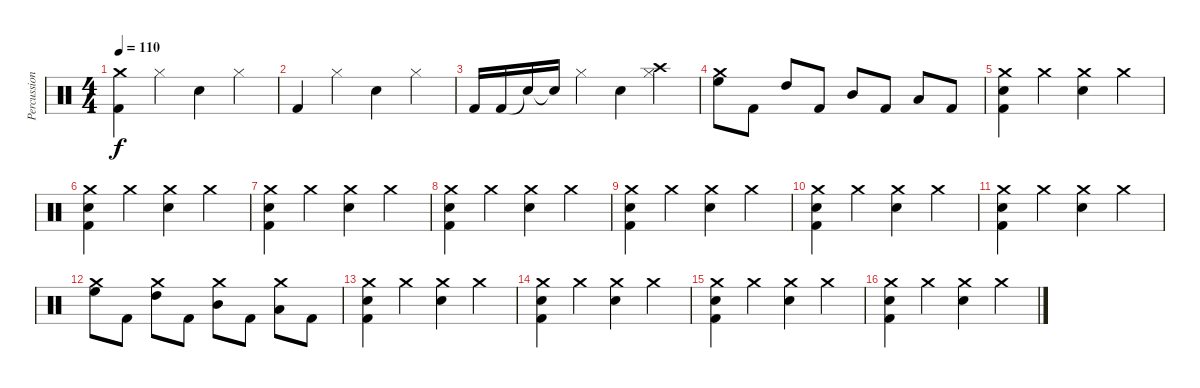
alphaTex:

\track ("Percussion" "Percussion") {instrument percussion}
\staff {score}
\articulation defaults
\ts (4 4)
\tempo 110
\clef neutral
\ks c
("Crash medium (hit)" "Kick (hit) 2").4{dy f} "Hi-Hat (closed)".4 "Electric Snare (hit)".4 "Hi-Hat (closed)".4 |
"Kick (hit) 2".4 "Hi-Hat (closed)".4 "Electric Snare (hit)".4 "Hi-Hat (closed)".4 |
"Kick (hit) 2".16 "Kick (hit) 2".16 "Snare (hit)"{t}.16 "Snare (hit)"{t}.16 "Hi-Hat (closed)".4 "Electric Snare (hit)".4 ("Crash high (hit)" "Hi-Hat (closed)").4 |
("Crash medium (hit)" "High Floor Tom (hit)").8 "Kick (hit) 2".8 "High Tom (hit)".8 "Kick (hit) 2".8 "Mid Tom (hit)".8 "Kick (hit) 2".8 "Low Tom (hit)".8 "Kick (hit) 2".8 |
("Crash medium (hit)" "Electric Snare (hit)" "Kick (hit) 2").4 "Crash medium (hit)".4 ("Crash medium (hit)" "Electric Snare (hit)").4 "Crash medium (hit)".4 |
("Crash medium (hit)" "Electric Snare (hit)" "Kick (hit) 2").4 "Crash medium (hit)".4 ("Crash medium (hit)" "Electric Snare (hit)").4 "Crash medium (hit)".4 |
("Crash medium (hit)" "Electric Snare (hit)" "Kick (hit) 2").4 "Crash medium (hit)".4 ("Crash medium (hit)" "Electric Snare (hit)").4 "Crash medium (hit)".4 |
("Crash medium (hit)" "Electric Snare (hit)" "Kick (hit) 2").4 "Crash medium (hit)".4 ("Crash medium (hit)" "Electric Snare (hit)").4 "Crash medium (hit)".4 |
("Crash medium (hit)" "Electric Snare (hit)" "Kick (hit) 2").4 "Crash medium (hit)".4 ("Crash medium (hit)" "Electric Snare (hit)").4 "Crash medium (hit)".4 |
("Crash medium (hit)" "Electric Snare (hit)" "Kick (hit) 2").4 "Crash medium (hit)".4 ("Crash medium (hit)" "Electric Snare (hit)").4 "Crash medium (hit)".4 |
("Crash medium (hit)" "Electric Snare (hit)" "Kick (hit) 2").4 "Crash medium (hit)".4 ("Crash medium (hit)" "Electric Snare (hit)").4 "Crash medium (hit)".4 |
("Crash medium (hit)" "High Floor Tom (hit)").8 "Kick (hit) 2".8 ("Crash medium (hit)" "High Tom (hit)").8 "Kick (hit) 2".8 ("Crash medium (hit)" "Mid Tom (hit)").8 "Kick (hit) 2".8 ("Crash medium (hit)" "Low Tom (hit)").8 "Kick (hit) 2".8 |
("Crash medium (hit)" "Electric Snare (hit)" "Kick (hit) 2").4 "Crash medium (hit)".4 ("Crash medium (hit)" "Electric Snare (hit)").4 "Crash medium (hit)".4 |
("Crash medium (hit)" "Electric Snare (hit)" "Kick (hit) 2").4 "Crash medium (hit)".4 ("Crash medium (hit)" "Electric Snare (hit)").4 "Crash medium (hit)".4 |
("Crash medium (hit)" "Electric Snare (hit)" "Kick (hit) 2").4 "Crash medium (hit)".4 ("Crash medium (hit)" "Electric Snare (hit)").4 "Crash medium (hit)".4 |
("Crash medium (hit)" "Electric Snare (hit)" "Kick (hit) 2").4 "Crash medium (hit)".4 ("Crash medium (hit)" "Electric Snare (hit)").4 "Crash medium (hit)".4
